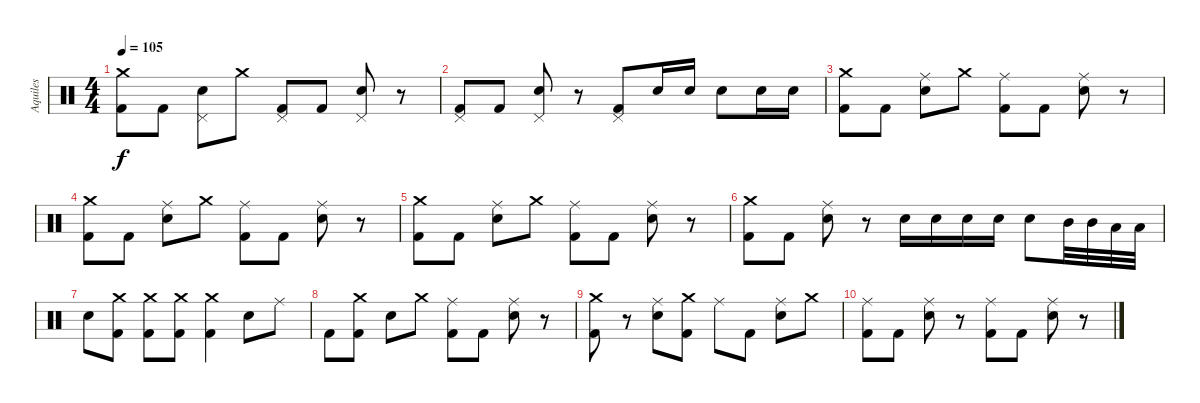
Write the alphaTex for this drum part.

\track ("Aquiles" "Aquiles") {instrument percussion}
\staff {score}
\articulation defaults
\ts (4 4)
\tempo 105
\clef neutral
\ks c
("Kick (hit) 2" "Crash medium (hit)").8{dy f} "Kick (hit) 2".8 ("Pedal Hi-Hat (hit)" "Electric Snare (hit)").8 "Crash medium (hit)".8 ("Kick (hit) 2" "Pedal Hi-Hat (hit)").8 "Kick (hit) 2".8 ("Pedal Hi-Hat (hit)" "Electric Snare (hit)").8 r.8 |
("Kick (hit) 2" "Pedal Hi-Hat (hit)").8 "Kick (hit) 2".8 ("Pedal Hi-Hat (hit)" "Electric Snare (hit)").8 r.8 ("Kick (hit) 2" "Pedal Hi-Hat (hit)").8 "Electric Snare (hit)".16 "Electric Snare (hit)".16 "Electric Snare (hit)".8 "Electric Snare (hit)".16 "Electric Snare (hit)".16 |
("Kick (hit) 2" "Crash medium (hit)").8 "Kick (hit) 2".8 ("Ride (middle)" "Electric Snare (hit)").8 "Crash medium (hit)".8 ("Kick (hit) 2" "Ride (middle)").8 "Kick (hit) 2".8 ("Ride (middle)" "Electric Snare (hit)").8 r.8 |
("Kick (hit) 2" "Crash medium (hit)").8 "Kick (hit) 2".8 ("Ride (middle)" "Electric Snare (hit)").8 "Crash medium (hit)".8 ("Kick (hit) 2" "Ride (middle)").8 "Kick (hit) 2".8 ("Ride (middle)" "Electric Snare (hit)").8 r.8 |
("Kick (hit) 2" "Crash medium (hit)").8 "Kick (hit) 2".8 ("Ride (middle)" "Electric Snare (hit)").8 "Crash medium (hit)".8 ("Kick (hit) 2" "Ride (middle)").8 "Kick (hit) 2".8 ("Ride (middle)" "Electric Snare (hit)").8 r.8 |
("Kick (hit) 2" "Crash medium (hit)").8 "Kick (hit) 2".8 ("Ride (middle)" "Electric Snare (hit)").8 r.8 "Electric Snare (hit)".16 "Electric Snare (hit)".16 "Electric Snare (hit)".16 "Electric Snare (hit)".16 "Electric Snare (hit)".8 "Mid Tom (hit)".32 "Mid Tom (hit)".32 "Low Tom (hit)".32 "Low Tom (hit)".32 |
"Electric Snare (hit)".8 ("Kick (hit) 2" "Crash medium (hit)").8 ("Kick (hit) 2" "Crash medium (hit)").8 ("Kick (hit) 2" "Crash medium (hit)").8 ("Kick (hit) 2" "Crash medium (hit)").4 "Electric Snare (hit)".8 "Ride (middle)".8 |
"Kick (hit) 2".8 ("Kick (hit) 2" "Crash medium (hit)").8 "Electric Snare (hit)".8 "Crash medium (hit)".8 ("Kick (hit) 2" "Ride (middle)").8 "Kick (hit) 2".8 ("Ride (middle)" "Electric Snare (hit)").8 r.8 |
("Kick (hit) 2" "Crash medium (hit)").8 r.8 ("Ride (middle)" "Electric Snare (hit)").8 ("Kick (hit) 2" "Crash medium (hit)").8 "Ride (middle)".8 "Kick (hit) 2".8 ("Ride (middle)" "Electric Snare (hit)").8 "Crash medium (hit)".8 |
("Kick (hit) 2" "Ride (middle)").8 "Kick (hit) 2".8 ("Ride (middle)" "Electric Snare (hit)").8 r.8 ("Kick (hit) 2" "Ride (middle)").8 "Kick (hit) 2".8 ("Ride (middle)" "Electric Snare (hit)").8 r.8
